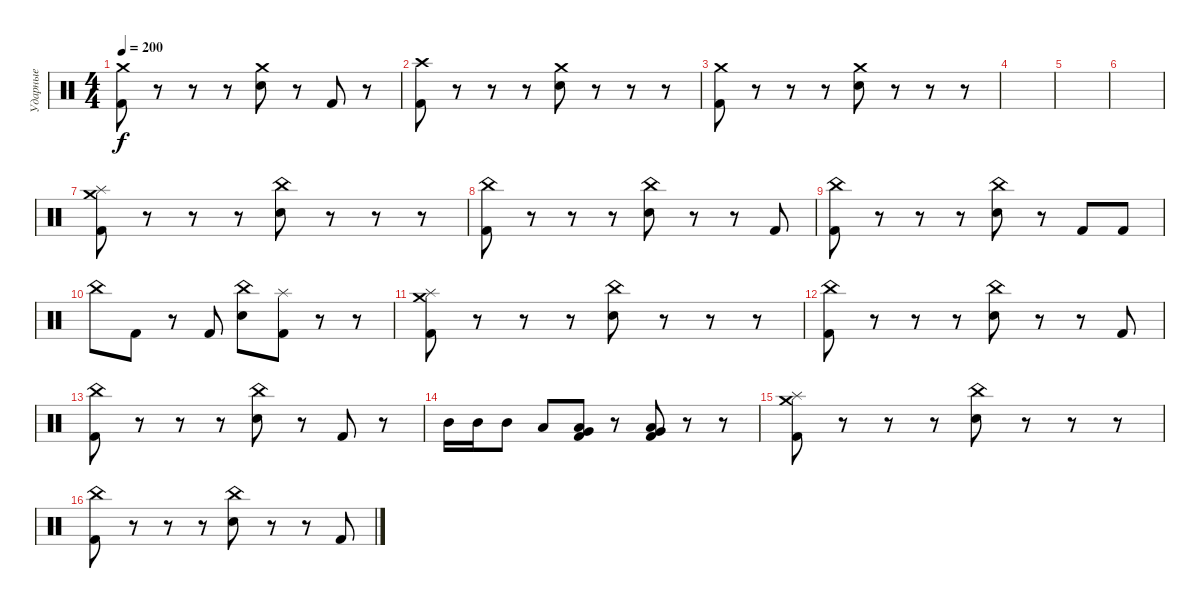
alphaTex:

\track ("Ударные" "Ударные") {instrument percussion}
\staff {score}
\articulation defaults
\ts (4 4)
\tempo 200
\clef neutral
\ks c
("Kick (hit) 2" "Crash medium (hit)").8{dy f} r.8 r.8 r.8 ("Electric Snare (hit)" "Crash medium (hit)").8 r.8 "Kick (hit) 2".8 r.8 |
("Kick (hit) 2" "Crash high (hit)").8 r.8 r.8 r.8 ("Electric Snare (hit)" "Crash medium (hit)").8 r.8 r.8 r.8 |
("Kick (hit) 2" "Crash medium (hit)").8 r.8 r.8 r.8 ("Electric Snare (hit)" "Crash medium (hit)").8 r.8 r.8 r.8 |
|
|
|
("Kick (hit) 2" "Splash (hit)" "Crash medium (hit)").8 r.8 r.8 r.8 ("Electric Snare (hit)" "China (hit)").8 r.8 r.8 r.8 |
("Kick (hit) 2" "China (hit)").8 r.8 r.8 r.8 ("Electric Snare (hit)" "China (hit)").8 r.8 r.8 "Kick (hit) 2".8 |
("Kick (hit) 2" "China (hit)").8 r.8 r.8 r.8 ("Electric Snare (hit)" "China (hit)").8 r.8 "Kick (hit) 2".8 "Kick (hit) 2".8 |
"China (hit)".8 "Kick (hit) 2".8 r.8 "Kick (hit) 2".8 ("Electric Snare (hit)" "China (hit)").8 ("Kick (hit) 2" "Splash (hit)").8 r.8 r.8 |
("Kick (hit) 2" "Splash (hit)" "Crash medium (hit)").8 r.8 r.8 r.8 ("Electric Snare (hit)" "China (hit)").8 r.8 r.8 r.8 |
("Kick (hit) 2" "China (hit)").8 r.8 r.8 r.8 ("Electric Snare (hit)" "China (hit)").8 r.8 r.8 "Kick (hit) 2".8 |
("Kick (hit) 2" "China (hit)").8 r.8 r.8 r.8 ("Electric Snare (hit)" "China (hit)").8 r.8 "Kick (hit) 2".8 r.8 |
"Mid Tom (hit)".16 "Mid Tom (hit)".16 "Mid Tom (hit)".8 "Low Tom (hit)".8 ("Kick (hit) 2" "Low Floor Tom (hit)" "Very Low Tom (hit)").8 r.8 ("Kick (hit) 2" "Low Floor Tom (hit)" "Very Low Tom (hit)").8 r.8 r.8 |
("Kick (hit) 2" "Splash (hit)" "Crash medium (hit)").8 r.8 r.8 r.8 ("Electric Snare (hit)" "China (hit)").8 r.8 r.8 r.8 |
("Kick (hit) 2" "China (hit)").8 r.8 r.8 r.8 ("Electric Snare (hit)" "China (hit)").8 r.8 r.8 "Kick (hit) 2".8
